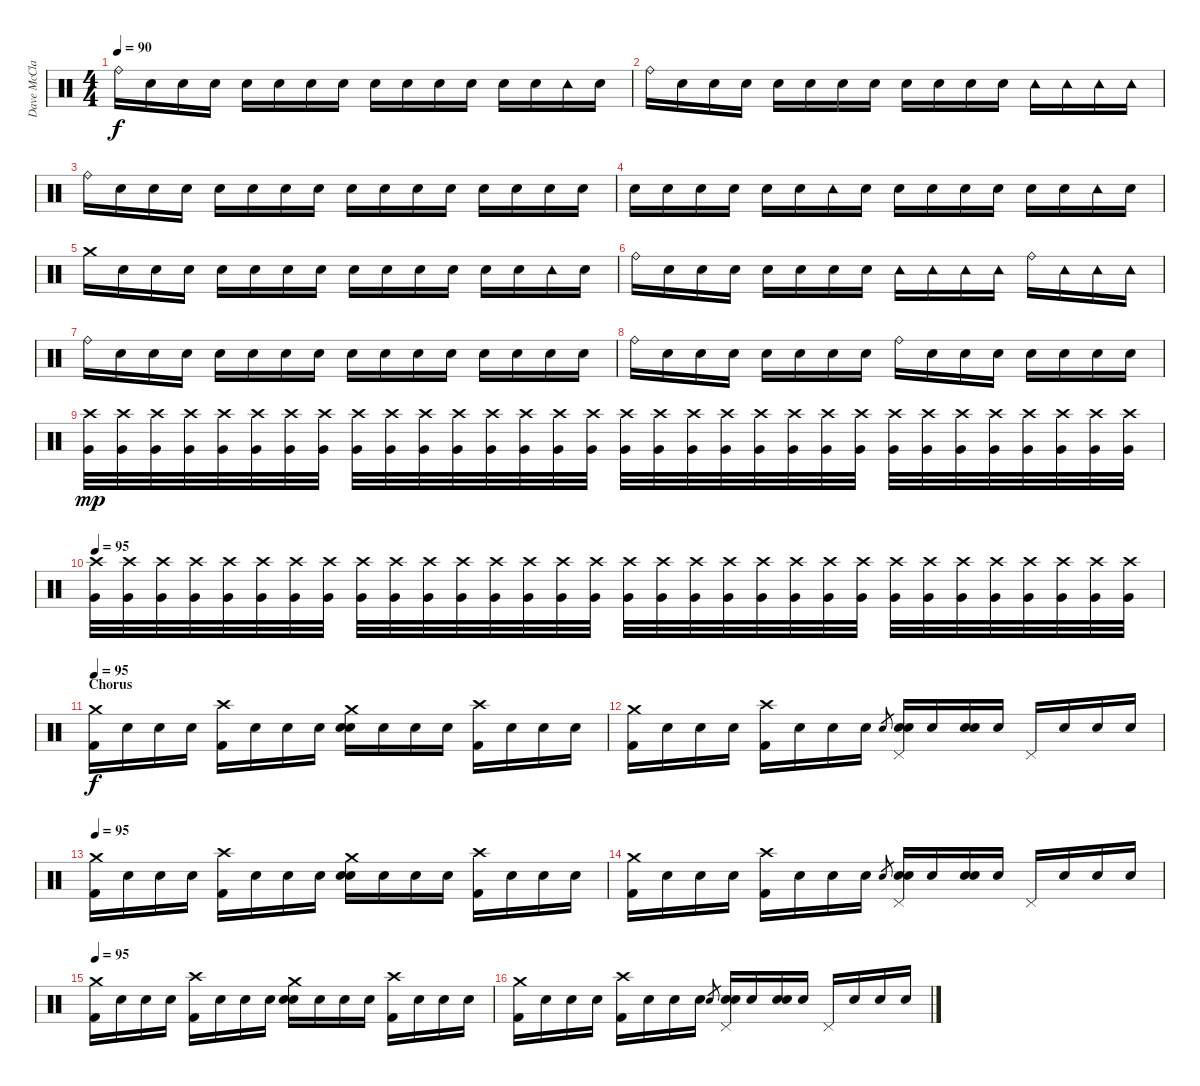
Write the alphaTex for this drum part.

\track ("Dave McClain - Drums" "Dave McCla") {instrument percussion}
\staff {score}
\articulation defaults
\ts (4 4)
\tempo 90
\clef neutral
\ks c "Ride (bell)".16{dy f} "Snare (hit)".16 "Snare (hit)".16 "Snare (hit)".16 "Snare (hit)".16 "Snare (hit)".16 "Snare (hit)".16 "Snare (hit)".16 "Snare (hit)".16 "Snare (hit)".16 "Snare (hit)".16 "Snare (hit)".16 "Snare (hit)".16 "Snare (hit)".16 "Tambourine (hit)".16 "Snare (hit)".16
|
"Ride (bell)".16 "Snare (hit)".16 "Snare (hit)".16 "Snare (hit)".16 "Snare (hit)".16 "Snare (hit)".16 "Snare (hit)".16 "Snare (hit)".16 "Snare (hit)".16 "Snare (hit)".16 "Snare (hit)".16 "Snare (hit)".16 "Tambourine (hit)".16 "Tambourine (hit)".16 "Tambourine (hit)".16 "Tambourine (hit)".16 |
"Ride (bell)".16 "Snare (hit)".16 "Snare (hit)".16 "Snare (hit)".16 "Snare (hit)".16 "Snare (hit)".16 "Snare (hit)".16 "Snare (hit)".16 "Snare (hit)".16 "Snare (hit)".16 "Snare (hit)".16 "Snare (hit)".16 "Snare (hit)".16 "Snare (hit)".16 "Snare (hit)".16 "Snare (hit)".16 |
"Snare (hit)".16 "Snare (hit)".16 "Snare (hit)".16 "Snare (hit)".16 "Snare (hit)".16 "Snare (hit)".16 "Tambourine (hit)".16 "Snare (hit)".16 "Snare (hit)".16 "Snare (hit)".16 "Snare (hit)".16 "Snare (hit)".16 "Snare (hit)".16 "Snare (hit)".16 "Tambourine (hit)".16 "Snare (hit)".16 |
"Crash medium (hit)".16 "Snare (hit)".16 "Snare (hit)".16 "Snare (hit)".16 "Snare (hit)".16 "Snare (hit)".16 "Snare (hit)".16 "Snare (hit)".16 "Snare (hit)".16 "Snare (hit)".16 "Snare (hit)".16 "Snare (hit)".16 "Snare (hit)".16 "Snare (hit)".16 "Tambourine (hit)".16 "Snare (hit)".16 |
"Ride (bell)".16 "Snare (hit)".16 "Snare (hit)".16 "Snare (hit)".16 "Snare (hit)".16 "Snare (hit)".16 "Snare (hit)".16 "Snare (hit)".16 "Tambourine (hit)".16 "Tambourine (hit)".16 "Tambourine (hit)".16 "Tambourine (hit)".16 "Ride (bell)".16 "Tambourine (hit)".16 "Tambourine (hit)".16 "Tambourine (hit)".16 |
"Ride (bell)".16 "Snare (hit)".16 "Snare (hit)".16 "Snare (hit)".16 "Snare (hit)".16 "Snare (hit)".16 "Snare (hit)".16 "Snare (hit)".16 "Snare (hit)".16 "Snare (hit)".16 "Snare (hit)".16 "Snare (hit)".16 "Snare (hit)".16 "Snare (hit)".16 "Snare (hit)".16 "Snare (hit)".16 |
"Ride (bell)".16 "Snare (hit)".16 "Snare (hit)".16 "Snare (hit)".16 "Snare (hit)".16 "Snare (hit)".16 "Snare (hit)".16 "Snare (hit)".16 "Ride (bell)".16 "Snare (hit)".16 "Snare (hit)".16 "Snare (hit)".16 "Snare (hit)".16 "Snare (hit)".16 "Snare (hit)".16 "Snare (hit)".16{volume 0} |
("Crash high (hit)" "Very Low Tom (hit)").32{dy mp volume 12 balance 8} ("Crash high (hit)" "Very Low Tom (hit)").32 ("Crash high (hit)" "Very Low Tom (hit)").32 ("Crash high (hit)" "Very Low Tom (hit)").32 ("Crash high (hit)" "Very Low Tom (hit)").32 ("Crash high (hit)" "Very Low Tom (hit)").32 ("Crash high (hit)" "Very Low Tom (hit)").32 ("Crash high (hit)" "Very Low Tom (hit)").32 ("Crash high (hit)" "Very Low Tom (hit)").32 ("Crash high (hit)" "Very Low Tom (hit)").32 ("Crash high (hit)" "Very Low Tom (hit)").32 ("Crash high (hit)" "Very Low Tom (hit)").32 ("Crash high (hit)" "Very Low Tom (hit)").32 ("Crash high (hit)" "Very Low Tom (hit)").32 ("Crash high (hit)" "Very Low Tom (hit)").32 ("Crash high (hit)" "Very Low Tom (hit)").32 ("Crash high (hit)" "Very Low Tom (hit)").32 ("Crash high (hit)" "Very Low Tom (hit)").32 ("Crash high (hit)" "Very Low Tom (hit)").32 ("Crash high (hit)" "Very Low Tom (hit)").32 ("Crash high (hit)" "Very Low Tom (hit)").32 ("Crash high (hit)" "Very Low Tom (hit)").32 ("Crash high (hit)" "Very Low Tom (hit)").32 ("Crash high (hit)" "Very Low Tom (hit)").32 ("Crash high (hit)" "Very Low Tom (hit)").32 ("Crash high (hit)" "Very Low Tom (hit)").32 ("Crash high (hit)" "Very Low Tom (hit)").32 ("Crash high (hit)" "Very Low Tom (hit)").32 ("Crash high (hit)" "Very Low Tom (hit)").32 ("Crash high (hit)" "Very Low Tom (hit)").32 ("Crash high (hit)" "Very Low Tom (hit)").32 ("Crash high (hit)" "Very Low Tom (hit)").32 |
\tempo 95
("Crash high (hit)" "Very Low Tom (hit)").32 ("Crash high (hit)" "Very Low Tom (hit)").32 ("Crash high (hit)" "Very Low Tom (hit)").32 ("Crash high (hit)" "Very Low Tom (hit)").32 ("Crash high (hit)" "Very Low Tom (hit)").32 ("Crash high (hit)" "Very Low Tom (hit)").32 ("Crash high (hit)" "Very Low Tom (hit)").32 ("Crash high (hit)" "Very Low Tom (hit)").32 ("Crash high (hit)" "Very Low Tom (hit)").32 ("Crash high (hit)" "Very Low Tom (hit)").32 ("Crash high (hit)" "Very Low Tom (hit)").32 ("Crash high (hit)" "Very Low Tom (hit)").32 ("Crash high (hit)" "Very Low Tom (hit)").32 ("Crash high (hit)" "Very Low Tom (hit)").32 ("Crash high (hit)" "Very Low Tom (hit)").32 ("Crash high (hit)" "Very Low Tom (hit)").32 ("Crash high (hit)" "Very Low Tom (hit)").32 ("Crash high (hit)" "Very Low Tom (hit)").32 ("Crash high (hit)" "Very Low Tom (hit)").32 ("Crash high (hit)" "Very Low Tom (hit)").32 ("Crash high (hit)" "Very Low Tom (hit)").32 ("Crash high (hit)" "Very Low Tom (hit)").32 ("Crash high (hit)" "Very Low Tom (hit)").32 ("Crash high (hit)" "Very Low Tom (hit)").32 ("Crash high (hit)" "Very Low Tom (hit)").32 ("Crash high (hit)" "Very Low Tom (hit)").32 ("Crash high (hit)" "Very Low Tom (hit)").32 ("Crash high (hit)" "Very Low Tom (hit)").32 ("Crash high (hit)" "Very Low Tom (hit)").32 ("Crash high (hit)" "Very Low Tom (hit)").32 ("Crash high (hit)" "Very Low Tom (hit)").32 ("Crash high (hit)" "Very Low Tom (hit)").32 |
\section ("" "Chorus")
\tempo 95
("Crash medium (hit)" "Kick (hit) 2").16{dy f volume 16 balance 8} "Snare (hit)".16 "Snare (hit)".16 "Snare (hit)".16 ("Crash high (hit)" "Kick (hit) 2").16 "Snare (hit)".16 "Snare (hit)".16 "Snare (hit)".16 ("Crash medium (hit)" "Electric Snare (hit)" "Snare (hit) 2").16 "Snare (hit)".16 "Snare (hit)".16 "Snare (hit)".16 ("Crash high (hit)" "Kick (hit) 2").16 "Snare (hit)".16 "Snare (hit)".16 "Snare (hit)".16 |
("Crash medium (hit)" "Kick (hit) 2").16 "Snare (hit)".16 "Snare (hit)".16 "Snare (hit)".16 ("Crash high (hit)" "Kick (hit) 2").16 "Snare (hit)".16 "Snare (hit)".16 "Snare (hit)".16 "Electric Snare (hit)".8{gr} ("Pedal Hi-Hat (hit)" "Electric Snare (hit)" "Snare (hit) 2").16 "Snare (hit)".16 ("Electric Snare (hit)" "Snare (hit) 2").16 "Snare (hit)".16 "Pedal Hi-Hat (hit)".16 "Snare (hit)".16 "Snare (hit)".16 "Snare (hit)".16 |
\tempo 95
("Crash medium (hit)" "Kick (hit) 2").16{volume 16 balance 8} "Snare (hit)".16 "Snare (hit)".16 "Snare (hit)".16 ("Crash high (hit)" "Kick (hit) 2").16 "Snare (hit)".16 "Snare (hit)".16 "Snare (hit)".16 ("Crash medium (hit)" "Electric Snare (hit)" "Snare (hit) 2").16 "Snare (hit)".16 "Snare (hit)".16 "Snare (hit)".16 ("Crash high (hit)" "Kick (hit) 2").16 "Snare (hit)".16 "Snare (hit)".16 "Snare (hit)".16 |
("Crash medium (hit)" "Kick (hit) 2").16 "Snare (hit)".16 "Snare (hit)".16 "Snare (hit)".16 ("Crash high (hit)" "Kick (hit) 2").16 "Snare (hit)".16 "Snare (hit)".16 "Snare (hit)".16 "Electric Snare (hit)".8{gr} ("Pedal Hi-Hat (hit)" "Electric Snare (hit)" "Snare (hit) 2").16 "Snare (hit)".16 ("Electric Snare (hit)" "Snare (hit) 2").16 "Snare (hit)".16 "Pedal Hi-Hat (hit)".16 "Snare (hit)".16 "Snare (hit)".16 "Snare (hit)".16 |
\tempo 95
("Crash medium (hit)" "Kick (hit) 2").16{volume 16 balance 8} "Snare (hit)".16 "Snare (hit)".16 "Snare (hit)".16 ("Crash high (hit)" "Kick (hit) 2").16 "Snare (hit)".16 "Snare (hit)".16 "Snare (hit)".16 ("Crash medium (hit)" "Electric Snare (hit)" "Snare (hit) 2").16 "Snare (hit)".16 "Snare (hit)".16 "Snare (hit)".16 ("Crash high (hit)" "Kick (hit) 2").16 "Snare (hit)".16 "Snare (hit)".16 "Snare (hit)".16 |
("Crash medium (hit)" "Kick (hit) 2").16 "Snare (hit)".16 "Snare (hit)".16 "Snare (hit)".16 ("Crash high (hit)" "Kick (hit) 2").16 "Snare (hit)".16 "Snare (hit)".16 "Snare (hit)".16 "Electric Snare (hit)".8{gr} ("Pedal Hi-Hat (hit)" "Electric Snare (hit)" "Snare (hit) 2").16 "Snare (hit)".16 ("Electric Snare (hit)" "Snare (hit) 2").16 "Snare (hit)".16 "Pedal Hi-Hat (hit)".16 "Snare (hit)".16 "Snare (hit)".16 "Snare (hit)".16
